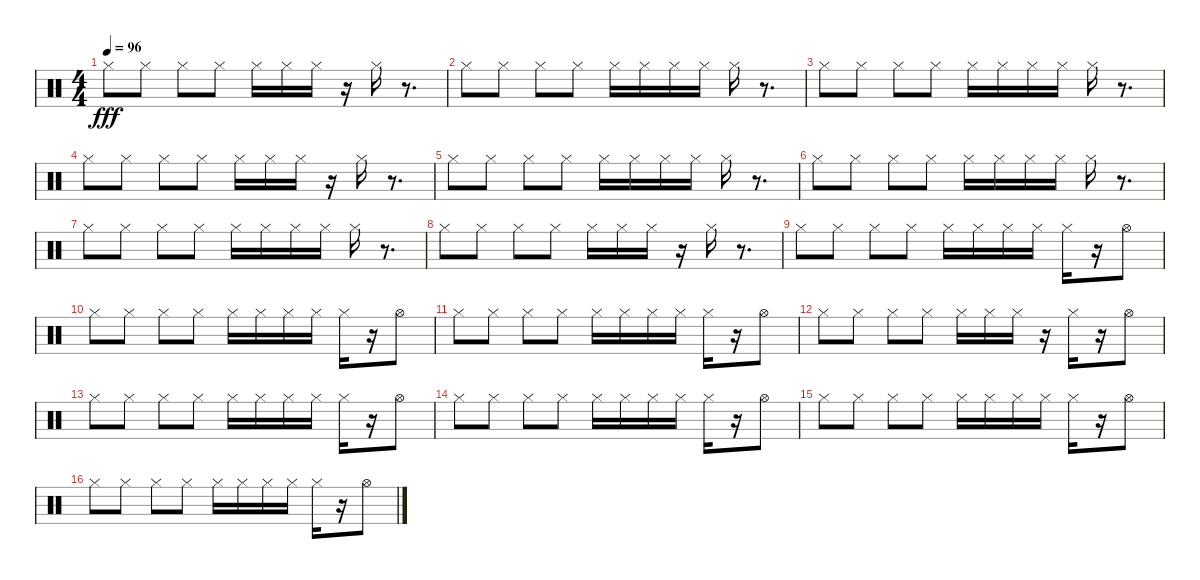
\track "" {instrument percussion}
\staff {score}
\articulation defaults
\ts (4 4)
\tempo 96
\clef neutral
\ks c "Hi-Hat (closed)".8{dy fff} "Hi-Hat (closed)".8 "Hi-Hat (closed)".8 "Hi-Hat (closed)".8 "Hi-Hat (closed)".16 "Hi-Hat (closed)".16 "Hi-Hat (closed)".16
r.16 "Hi-Hat (closed)".16 r.8{d} |
"Hi-Hat (closed)".8 "Hi-Hat (closed)".8 "Hi-Hat (closed)".8 "Hi-Hat (closed)".8 "Hi-Hat (closed)".16 "Hi-Hat (closed)".16 "Hi-Hat (closed)".16 "Hi-Hat (closed)".16 "Hi-Hat (closed)".16 r.8{d} |
"Hi-Hat (closed)".8 "Hi-Hat (closed)".8 "Hi-Hat (closed)".8 "Hi-Hat (closed)".8 "Hi-Hat (closed)".16 "Hi-Hat (closed)".16 "Hi-Hat (closed)".16 "Hi-Hat (closed)".16 "Hi-Hat (closed)".16 r.8{d} |
"Hi-Hat (closed)".8 "Hi-Hat (closed)".8 "Hi-Hat (closed)".8 "Hi-Hat (closed)".8 "Hi-Hat (closed)".16 "Hi-Hat (closed)".16 "Hi-Hat (closed)".16 r.16 "Hi-Hat (closed)".16 r.8{d} |
"Hi-Hat (closed)".8 "Hi-Hat (closed)".8 "Hi-Hat (closed)".8 "Hi-Hat (closed)".8 "Hi-Hat (closed)".16 "Hi-Hat (closed)".16 "Hi-Hat (closed)".16 "Hi-Hat (closed)".16 "Hi-Hat (closed)".16 r.8{d} |
"Hi-Hat (closed)".8 "Hi-Hat (closed)".8 "Hi-Hat (closed)".8 "Hi-Hat (closed)".8 "Hi-Hat (closed)".16 "Hi-Hat (closed)".16 "Hi-Hat (closed)".16 "Hi-Hat (closed)".16 "Hi-Hat (closed)".16 r.8{d} |
"Hi-Hat (closed)".8 "Hi-Hat (closed)".8 "Hi-Hat (closed)".8 "Hi-Hat (closed)".8 "Hi-Hat (closed)".16 "Hi-Hat (closed)".16 "Hi-Hat (closed)".16 "Hi-Hat (closed)".16 "Hi-Hat (closed)".16 r.8{d} |
"Hi-Hat (closed)".8 "Hi-Hat (closed)".8 "Hi-Hat (closed)".8 "Hi-Hat (closed)".8 "Hi-Hat (closed)".16 "Hi-Hat (closed)".16 "Hi-Hat (closed)".16 r.16 "Hi-Hat (closed)".16 r.8{d} |
"Hi-Hat (closed)".8 "Hi-Hat (closed)".8 "Hi-Hat (closed)".8 "Hi-Hat (closed)".8 "Hi-Hat (closed)".16 "Hi-Hat (closed)".16 "Hi-Hat (closed)".16 "Hi-Hat (closed)".16 "Hi-Hat (closed)".16 r.16 "Hi-Hat (open)".8 |
"Hi-Hat (closed)".8 "Hi-Hat (closed)".8 "Hi-Hat (closed)".8 "Hi-Hat (closed)".8 "Hi-Hat (closed)".16 "Hi-Hat (closed)".16 "Hi-Hat (closed)".16 "Hi-Hat (closed)".16 "Hi-Hat (closed)".16 r.16 "Hi-Hat (open)".8 |
"Hi-Hat (closed)".8 "Hi-Hat (closed)".8 "Hi-Hat (closed)".8 "Hi-Hat (closed)".8 "Hi-Hat (closed)".16 "Hi-Hat (closed)".16 "Hi-Hat (closed)".16 "Hi-Hat (closed)".16 "Hi-Hat (closed)".16 r.16 "Hi-Hat (open)".8 |
"Hi-Hat (closed)".8 "Hi-Hat (closed)".8 "Hi-Hat (closed)".8 "Hi-Hat (closed)".8 "Hi-Hat (closed)".16 "Hi-Hat (closed)".16 "Hi-Hat (closed)".16 r.16 "Hi-Hat (closed)".16 r.16 "Hi-Hat (open)".8 |
"Hi-Hat (closed)".8 "Hi-Hat (closed)".8 "Hi-Hat (closed)".8 "Hi-Hat (closed)".8 "Hi-Hat (closed)".16 "Hi-Hat (closed)".16 "Hi-Hat (closed)".16 "Hi-Hat (closed)".16 "Hi-Hat (closed)".16 r.16 "Hi-Hat (open)".8 |
"Hi-Hat (closed)".8 "Hi-Hat (closed)".8 "Hi-Hat (closed)".8 "Hi-Hat (closed)".8 "Hi-Hat (closed)".16 "Hi-Hat (closed)".16 "Hi-Hat (closed)".16 "Hi-Hat (closed)".16 "Hi-Hat (closed)".16 r.16 "Hi-Hat (open)".8 |
"Hi-Hat (closed)".8 "Hi-Hat (closed)".8 "Hi-Hat (closed)".8 "Hi-Hat (closed)".8 "Hi-Hat (closed)".16 "Hi-Hat (closed)".16 "Hi-Hat (closed)".16 "Hi-Hat (closed)".16 "Hi-Hat (closed)".16 r.16 "Hi-Hat (open)".8 |
"Hi-Hat (closed)".8 "Hi-Hat (closed)".8 "Hi-Hat (closed)".8 "Hi-Hat (closed)".8 "Hi-Hat (closed)".16 "Hi-Hat (closed)".16 "Hi-Hat (closed)".16 "Hi-Hat (closed)".16 "Hi-Hat (closed)".16 r.16 "Hi-Hat (open)".8
